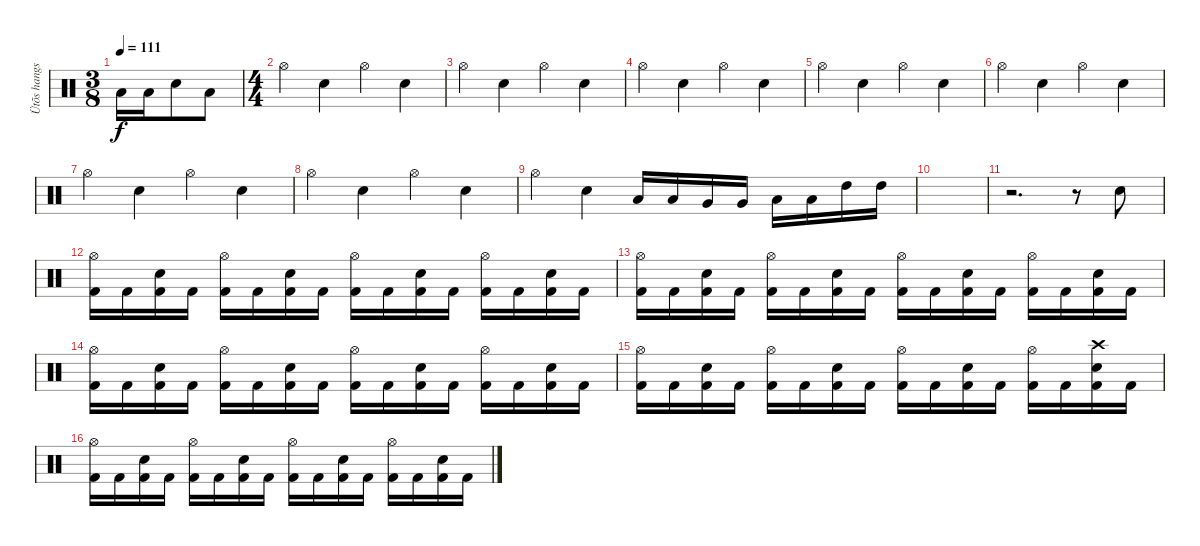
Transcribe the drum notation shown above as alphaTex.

\track ("Ütõs hangszer" "Ütõs hangs") {instrument percussion}
\staff {score}
\articulation defaults
\ts (3 8)
\tempo 111
\clef neutral
\ks c "Low Floor Tom (hit)".16{dy f} "Low Floor Tom (hit)".16 "Electric Snare (hit)".8 "Low Floor Tom (hit)".8
|
\ts (4 4)
"Hi-Hat (open)".4 "Electric Snare (hit)".4 "Hi-Hat (open)".4 "Electric Snare (hit)".4 |
"Hi-Hat (open)".4 "Electric Snare (hit)".4 "Hi-Hat (open)".4 "Electric Snare (hit)".4 |
"Hi-Hat (open)".4 "Electric Snare (hit)".4 "Hi-Hat (open)".4 "Electric Snare (hit)".4 |
"Hi-Hat (open)".4 "Electric Snare (hit)".4 "Hi-Hat (open)".4 "Electric Snare (hit)".4 |
"Hi-Hat (open)".4 "Electric Snare (hit)".4 "Hi-Hat (open)".4 "Electric Snare (hit)".4 |
"Hi-Hat (open)".4 "Electric Snare (hit)".4 "Hi-Hat (open)".4 "Electric Snare (hit)".4 |
"Hi-Hat (open)".4 "Electric Snare (hit)".4 "Hi-Hat (open)".4 "Electric Snare (hit)".4 |
"Hi-Hat (open)".4 "Electric Snare (hit)".4 "Low Floor Tom (hit)".16 "Low Floor Tom (hit)".16 "Very Low Tom (hit)".16 "Very Low Tom (hit)".16 "Low Tom (hit)".16 "Low Tom (hit)".16 "High Tom (hit)".16 "High Tom (hit)".16 |
|
r.2{d} r.8 "Electric Snare (hit)".8 |
("Kick (hit) 2" "Hi-Hat (open)").16 "Kick (hit) 2".16 ("Kick (hit) 2" "Electric Snare (hit)").16 "Kick (hit) 2".16 ("Kick (hit) 2" "Hi-Hat (open)").16 "Kick (hit) 2".16 ("Kick (hit) 2" "Electric Snare (hit)").16 "Kick (hit) 2".16 ("Kick (hit) 2" "Hi-Hat (open)").16 "Kick (hit) 2".16 ("Kick (hit) 2" "Electric Snare (hit)").16 "Kick (hit) 2".16 ("Kick (hit) 2" "Hi-Hat (open)").16 "Kick (hit) 2".16 ("Kick (hit) 2" "Electric Snare (hit)").16 "Kick (hit) 2".16 |
("Kick (hit) 2" "Hi-Hat (open)").16 "Kick (hit) 2".16 ("Kick (hit) 2" "Electric Snare (hit)").16 "Kick (hit) 2".16 ("Kick (hit) 2" "Hi-Hat (open)").16 "Kick (hit) 2".16 ("Kick (hit) 2" "Electric Snare (hit)").16 "Kick (hit) 2".16 ("Kick (hit) 2" "Hi-Hat (open)").16 "Kick (hit) 2".16 ("Kick (hit) 2" "Electric Snare (hit)").16 "Kick (hit) 2".16 ("Kick (hit) 2" "Hi-Hat (open)").16 "Kick (hit) 2".16 ("Kick (hit) 2" "Electric Snare (hit)").16 "Kick (hit) 2".16 |
("Kick (hit) 2" "Hi-Hat (open)").16 "Kick (hit) 2".16 ("Kick (hit) 2" "Electric Snare (hit)").16 "Kick (hit) 2".16 ("Kick (hit) 2" "Hi-Hat (open)").16 "Kick (hit) 2".16 ("Kick (hit) 2" "Electric Snare (hit)").16 "Kick (hit) 2".16 ("Kick (hit) 2" "Hi-Hat (open)").16 "Kick (hit) 2".16 ("Kick (hit) 2" "Electric Snare (hit)").16 "Kick (hit) 2".16 ("Kick (hit) 2" "Hi-Hat (open)").16 "Kick (hit) 2".16 ("Kick (hit) 2" "Electric Snare (hit)").16 "Kick (hit) 2".16 |
("Kick (hit) 2" "Hi-Hat (open)").16 "Kick (hit) 2".16 ("Kick (hit) 2" "Electric Snare (hit)").16 "Kick (hit) 2".16 ("Kick (hit) 2" "Hi-Hat (open)").16 "Kick (hit) 2".16 ("Kick (hit) 2" "Electric Snare (hit)").16 "Kick (hit) 2".16 ("Kick (hit) 2" "Hi-Hat (open)").16 "Kick (hit) 2".16 ("Kick (hit) 2" "Electric Snare (hit)").16 "Kick (hit) 2".16 ("Kick (hit) 2" "Hi-Hat (open)").16 "Kick (hit) 2".16 ("Kick (hit) 2" "Crash high (hit)" "Electric Snare (hit)").16 "Kick (hit) 2".16 |
("Kick (hit) 2" "Hi-Hat (open)").16 "Kick (hit) 2".16 ("Kick (hit) 2" "Electric Snare (hit)").16 "Kick (hit) 2".16 ("Kick (hit) 2" "Hi-Hat (open)").16 "Kick (hit) 2".16 ("Kick (hit) 2" "Electric Snare (hit)").16 "Kick (hit) 2".16 ("Kick (hit) 2" "Hi-Hat (open)").16 "Kick (hit) 2".16 ("Kick (hit) 2" "Electric Snare (hit)").16 "Kick (hit) 2".16 ("Kick (hit) 2" "Hi-Hat (open)").16 "Kick (hit) 2".16 ("Kick (hit) 2" "Electric Snare (hit)").16 "Kick (hit) 2".16
